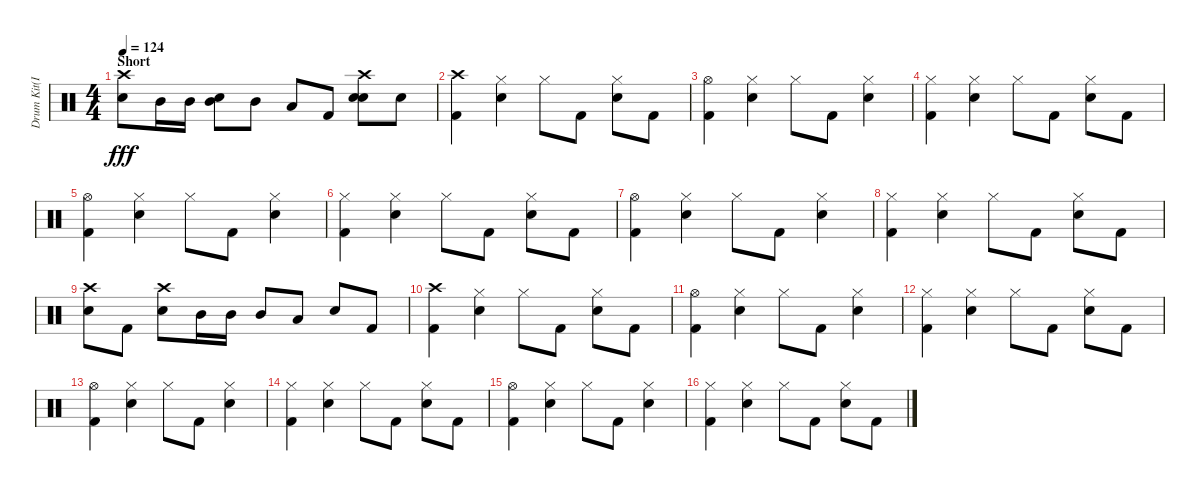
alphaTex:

\track ("Drum Kit(Inu)" "Drum Kit(I") {instrument percussion}
\staff {score}
\articulation defaults
\ts (4 4)
\section ("" "Short")
\tempo 124
\clef neutral
\ks c
("Crash high (hit)" "Electric Snare (hit)").8{dy fff} "Mid Tom (hit)".16 "Mid Tom (hit)".16 ("Mid Tom (hit)" "Hand Clap (hit)").8 "Mid Tom (hit)".8 "Low Tom (hit)".8 "Kick (hit) 2".8 ("Crash high (hit)" "Electric Snare (hit)" "Hand Clap (hit)").8 "Hand Clap (hit)".8 |
("Crash high (hit)" "Kick (hit) 2").4 ("Hi-Hat (closed)" "Electric Snare (hit)").4 "Hi-Hat (closed)".8 "Kick (hit) 2".8 ("Hi-Hat (closed)" "Electric Snare (hit)").8 "Kick (hit) 2".8 |
("Hi-Hat (open)" "Kick (hit) 2").4 ("Hi-Hat (closed)" "Electric Snare (hit)").4 "Hi-Hat (closed)".8 "Kick (hit) 2".8 ("Electric Snare (hit)" "Hi-Hat (closed)").4 |
("Kick (hit) 2" "Hi-Hat (closed)").4 ("Hi-Hat (closed)" "Electric Snare (hit)").4 "Hi-Hat (closed)".8 "Kick (hit) 2".8 ("Electric Snare (hit)" "Hi-Hat (closed)").8 "Kick (hit) 2".8 |
("Hi-Hat (open)" "Kick (hit) 2").4 ("Hi-Hat (closed)" "Electric Snare (hit)").4 "Hi-Hat (closed)".8 "Kick (hit) 2".8 ("Electric Snare (hit)" "Hi-Hat (closed)").4 |
("Kick (hit) 2" "Hi-Hat (closed)").4 ("Hi-Hat (closed)" "Electric Snare (hit)").4 "Hi-Hat (closed)".8 "Kick (hit) 2".8 ("Electric Snare (hit)" "Hi-Hat (closed)").8 "Kick (hit) 2".8 |
("Hi-Hat (open)" "Kick (hit) 2").4 ("Hi-Hat (closed)" "Electric Snare (hit)").4 "Hi-Hat (closed)".8 "Kick (hit) 2".8 ("Electric Snare (hit)" "Hi-Hat (closed)").4 |
("Kick (hit) 2" "Hi-Hat (closed)").4 ("Hi-Hat (closed)" "Electric Snare (hit)").4 "Hi-Hat (closed)".8 "Kick (hit) 2".8 ("Electric Snare (hit)" "Hi-Hat (closed)").8 "Kick (hit) 2".8 |
("Electric Snare (hit)" "Crash high (hit)").8 "Kick (hit) 2".8 ("Electric Snare (hit)" "Crash high (hit)").8 "Mid Tom (hit)".16 "Mid Tom (hit)".16 "Mid Tom (hit)".8 "Low Tom (hit)".8 "Electric Snare (hit)".8 "Kick (hit) 2".8 |
("Crash high (hit)" "Kick (hit) 2").4 ("Hi-Hat (closed)" "Electric Snare (hit)").4 "Hi-Hat (closed)".8 "Kick (hit) 2".8 ("Hi-Hat (closed)" "Electric Snare (hit)").8 "Kick (hit) 2".8 |
("Hi-Hat (open)" "Kick (hit) 2").4 ("Hi-Hat (closed)" "Electric Snare (hit)").4 "Hi-Hat (closed)".8 "Kick (hit) 2".8 ("Electric Snare (hit)" "Hi-Hat (closed)").4 |
("Kick (hit) 2" "Hi-Hat (closed)").4 ("Hi-Hat (closed)" "Electric Snare (hit)").4 "Hi-Hat (closed)".8 "Kick (hit) 2".8 ("Electric Snare (hit)" "Hi-Hat (closed)").8 "Kick (hit) 2".8 |
("Hi-Hat (open)" "Kick (hit) 2").4 ("Hi-Hat (closed)" "Electric Snare (hit)").4 "Hi-Hat (closed)".8 "Kick (hit) 2".8 ("Electric Snare (hit)" "Hi-Hat (closed)").4 |
("Kick (hit) 2" "Hi-Hat (closed)").4 ("Hi-Hat (closed)" "Electric Snare (hit)").4 "Hi-Hat (closed)".8 "Kick (hit) 2".8 ("Electric Snare (hit)" "Hi-Hat (closed)").8 "Kick (hit) 2".8 |
("Hi-Hat (open)" "Kick (hit) 2").4 ("Hi-Hat (closed)" "Electric Snare (hit)").4 "Hi-Hat (closed)".8 "Kick (hit) 2".8 ("Electric Snare (hit)" "Hi-Hat (closed)").4 |
("Kick (hit) 2" "Hi-Hat (closed)").4 ("Hi-Hat (closed)" "Electric Snare (hit)").4 "Hi-Hat (closed)".8 "Kick (hit) 2".8 ("Electric Snare (hit)" "Hi-Hat (closed)").8 "Kick (hit) 2".8
